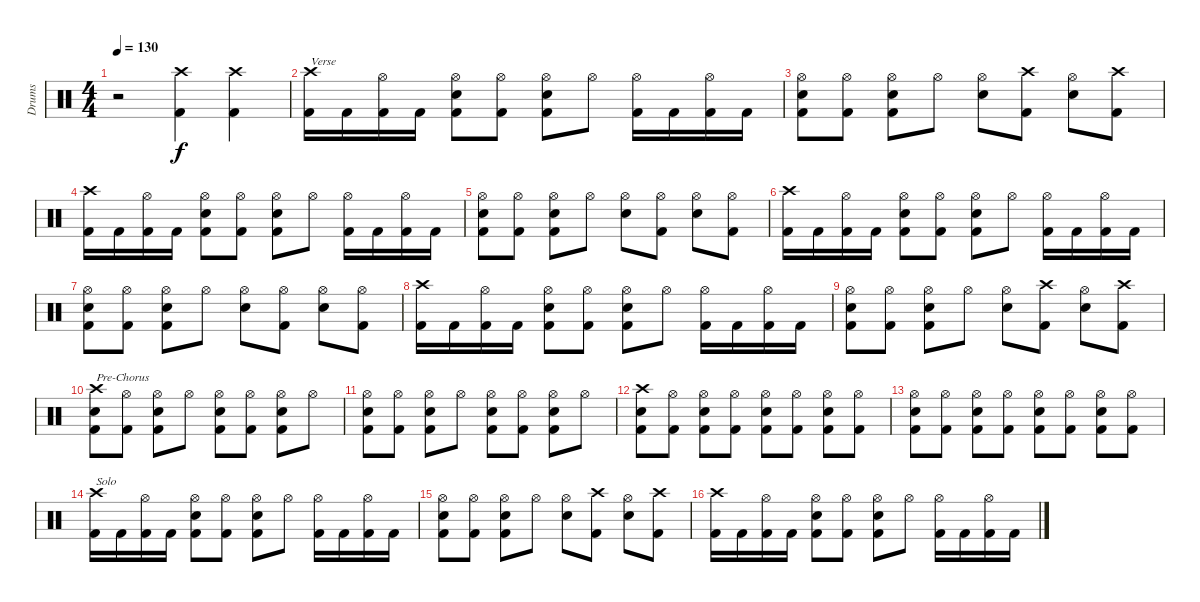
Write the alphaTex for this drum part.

\track ("Drums" "Drums") {instrument percussion}
\staff {score}
\articulation defaults
\ts (4 4)
\tempo 130
\clef neutral
\ks c
r.2{dy f} ("Crash high (hit)" "Kick (hit) 2").4 ("Crash high (hit)" "Kick (hit) 2").4 |
("Crash high (hit)" "Kick (hit) 2").16{txt "Verse"} "Kick (hit) 2".16 ("Hi-Hat (open)" "Kick (hit) 2").16 "Kick (hit) 2".16 ("Hi-Hat (open)" "Snare (hit) 2" "Kick (hit) 2").8 ("Hi-Hat (open)" "Kick (hit) 2").8 ("Hi-Hat (open)" "Snare (hit) 2" "Kick (hit) 2").8 "Hi-Hat (open)".8 ("Hi-Hat (open)" "Kick (hit) 2").16 "Kick (hit) 2".16 ("Hi-Hat (open)" "Kick (hit) 2").16 "Kick (hit) 2".16 |
("Hi-Hat (open)" "Snare (hit) 2" "Kick (hit) 2").8 ("Hi-Hat (open)" "Kick (hit) 2").8 ("Hi-Hat (open)" "Snare (hit) 2" "Kick (hit) 2").8 "Hi-Hat (open)".8 ("Hi-Hat (open)" "Snare (hit) 2").8 ("Crash high (hit)" "Kick (hit) 2").8 ("Hi-Hat (open)" "Snare (hit) 2").8 ("Crash high (hit)" "Kick (hit) 2").8 |
("Crash high (hit)" "Kick (hit) 2").16 "Kick (hit) 2".16 ("Hi-Hat (open)" "Kick (hit) 2").16 "Kick (hit) 2".16 ("Hi-Hat (open)" "Snare (hit) 2" "Kick (hit) 2").8 ("Hi-Hat (open)" "Kick (hit) 2").8 ("Hi-Hat (open)" "Snare (hit) 2" "Kick (hit) 2").8 "Hi-Hat (open)".8 ("Hi-Hat (open)" "Kick (hit) 2").16 "Kick (hit) 2".16 ("Hi-Hat (open)" "Kick (hit) 2").16 "Kick (hit) 2".16 |
("Hi-Hat (open)" "Snare (hit) 2" "Kick (hit) 2").8 ("Hi-Hat (open)" "Kick (hit) 2").8 ("Hi-Hat (open)" "Snare (hit) 2" "Kick (hit) 2").8 "Hi-Hat (open)".8 ("Hi-Hat (open)" "Snare (hit) 2").8 ("Hi-Hat (open)" "Kick (hit) 2").8 ("Hi-Hat (open)" "Snare (hit) 2").8 ("Hi-Hat (open)" "Kick (hit) 2").8 |
("Crash high (hit)" "Kick (hit) 2").16 "Kick (hit) 2".16 ("Hi-Hat (open)" "Kick (hit) 2").16 "Kick (hit) 2".16 ("Hi-Hat (open)" "Snare (hit) 2" "Kick (hit) 2").8 ("Hi-Hat (open)" "Kick (hit) 2").8 ("Hi-Hat (open)" "Snare (hit) 2" "Kick (hit) 2").8 "Hi-Hat (open)".8 ("Hi-Hat (open)" "Kick (hit) 2").16 "Kick (hit) 2".16 ("Hi-Hat (open)" "Kick (hit) 2").16 "Kick (hit) 2".16 |
("Hi-Hat (open)" "Snare (hit) 2" "Kick (hit) 2").8 ("Hi-Hat (open)" "Kick (hit) 2").8 ("Hi-Hat (open)" "Snare (hit) 2" "Kick (hit) 2").8 "Hi-Hat (open)".8 ("Hi-Hat (open)" "Snare (hit) 2").8 ("Hi-Hat (open)" "Kick (hit) 2").8 ("Hi-Hat (open)" "Snare (hit) 2").8 ("Hi-Hat (open)" "Kick (hit) 2").8 |
("Crash high (hit)" "Kick (hit) 2").16 "Kick (hit) 2".16 ("Hi-Hat (open)" "Kick (hit) 2").16 "Kick (hit) 2".16 ("Hi-Hat (open)" "Snare (hit) 2" "Kick (hit) 2").8 ("Hi-Hat (open)" "Kick (hit) 2").8 ("Hi-Hat (open)" "Snare (hit) 2" "Kick (hit) 2").8 "Hi-Hat (open)".8 ("Hi-Hat (open)" "Kick (hit) 2").16 "Kick (hit) 2".16 ("Hi-Hat (open)" "Kick (hit) 2").16 "Kick (hit) 2".16 |
("Hi-Hat (open)" "Snare (hit) 2" "Kick (hit) 2").8 ("Hi-Hat (open)" "Kick (hit) 2").8 ("Hi-Hat (open)" "Snare (hit) 2" "Kick (hit) 2").8 "Hi-Hat (open)".8 ("Hi-Hat (open)" "Snare (hit) 2").8 ("Crash high (hit)" "Kick (hit) 2").8 ("Hi-Hat (open)" "Snare (hit) 2").8 ("Crash high (hit)" "Kick (hit) 2").8 |
("Crash high (hit)" "Snare (hit) 2" "Kick (hit) 2").8{txt "Pre-Chorus"} ("Hi-Hat (open)" "Kick (hit) 2").8 ("Hi-Hat (open)" "Snare (hit) 2" "Kick (hit) 2").8 "Hi-Hat (open)".8 ("Hi-Hat (open)" "Snare (hit) 2" "Kick (hit) 2").8 ("Hi-Hat (open)" "Kick (hit) 2").8 ("Hi-Hat (open)" "Snare (hit) 2" "Kick (hit) 2").8 "Hi-Hat (open)".8 |
("Hi-Hat (open)" "Snare (hit) 2" "Kick (hit) 2").8 ("Hi-Hat (open)" "Kick (hit) 2").8 ("Hi-Hat (open)" "Snare (hit) 2" "Kick (hit) 2").8 "Hi-Hat (open)".8 ("Hi-Hat (open)" "Snare (hit) 2" "Kick (hit) 2").8 ("Hi-Hat (open)" "Kick (hit) 2").8 ("Hi-Hat (open)" "Snare (hit) 2" "Kick (hit) 2").8 "Hi-Hat (open)".8 |
("Crash high (hit)" "Snare (hit) 2" "Kick (hit) 2").8 ("Hi-Hat (open)" "Kick (hit) 2").8 ("Hi-Hat (open)" "Snare (hit) 2" "Kick (hit) 2").8 ("Hi-Hat (open)" "Kick (hit) 2").8 ("Hi-Hat (open)" "Snare (hit) 2" "Kick (hit) 2").8 ("Hi-Hat (open)" "Kick (hit) 2").8 ("Hi-Hat (open)" "Snare (hit) 2" "Kick (hit) 2").8 ("Hi-Hat (open)" "Kick (hit) 2").8 |
("Hi-Hat (open)" "Snare (hit) 2" "Kick (hit) 2").8 ("Hi-Hat (open)" "Kick (hit) 2").8 ("Hi-Hat (open)" "Snare (hit) 2" "Kick (hit) 2").8 ("Hi-Hat (open)" "Kick (hit) 2").8 ("Hi-Hat (open)" "Snare (hit) 2" "Kick (hit) 2").8 ("Hi-Hat (open)" "Kick (hit) 2").8 ("Hi-Hat (open)" "Snare (hit) 2" "Kick (hit) 2").8 ("Hi-Hat (open)" "Kick (hit) 2").8 |
("Crash high (hit)" "Kick (hit) 2").16{txt "Solo"} "Kick (hit) 2".16 ("Hi-Hat (open)" "Kick (hit) 2").16 "Kick (hit) 2".16 ("Hi-Hat (open)" "Snare (hit) 2" "Kick (hit) 2").8 ("Hi-Hat (open)" "Kick (hit) 2").8 ("Hi-Hat (open)" "Snare (hit) 2" "Kick (hit) 2").8 "Hi-Hat (open)".8 ("Hi-Hat (open)" "Kick (hit) 2").16 "Kick (hit) 2".16 ("Hi-Hat (open)" "Kick (hit) 2").16 "Kick (hit) 2".16 |
("Hi-Hat (open)" "Snare (hit) 2" "Kick (hit) 2").8 ("Hi-Hat (open)" "Kick (hit) 2").8 ("Hi-Hat (open)" "Snare (hit) 2" "Kick (hit) 2").8 "Hi-Hat (open)".8 ("Hi-Hat (open)" "Snare (hit) 2").8 ("Crash high (hit)" "Kick (hit) 2").8 ("Hi-Hat (open)" "Snare (hit) 2").8 ("Crash high (hit)" "Kick (hit) 2").8 |
("Crash high (hit)" "Kick (hit) 2").16 "Kick (hit) 2".16 ("Hi-Hat (open)" "Kick (hit) 2").16 "Kick (hit) 2".16 ("Hi-Hat (open)" "Snare (hit) 2" "Kick (hit) 2").8 ("Hi-Hat (open)" "Kick (hit) 2").8 ("Hi-Hat (open)" "Snare (hit) 2" "Kick (hit) 2").8 "Hi-Hat (open)".8 ("Hi-Hat (open)" "Kick (hit) 2").16 "Kick (hit) 2".16 ("Hi-Hat (open)" "Kick (hit) 2").16 "Kick (hit) 2".16
